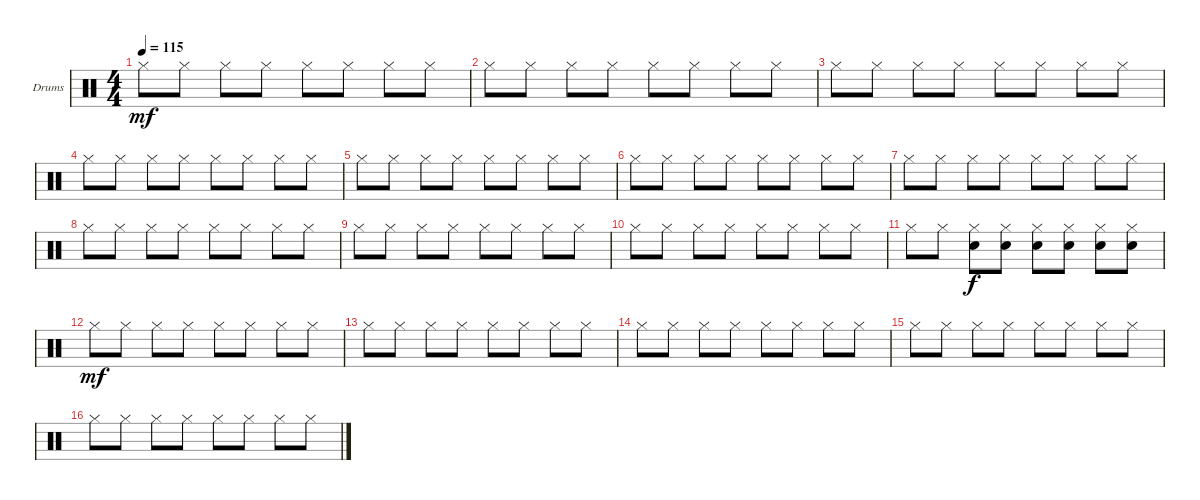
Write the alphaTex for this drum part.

\defaultSystemsLayout 4
\bracketExtendMode groupsimilarinstruments
\firstSystemTrackNameOrientation horizontal
\otherSystemsTrackNameOrientation horizontal
\track ("Drumkit" "Drums") {instrument percussion}
\staff {score}
\articulation defaults
\ts (4 4)
\tempo 115
\clef neutral
\ks c "Hi-Hat (closed)".8{dy mf} "Hi-Hat (closed)".8 "Hi-Hat (closed)".8 "Hi-Hat (closed)".8 "Hi-Hat (closed)".8 "Hi-Hat (closed)".8 "Hi-Hat (closed)".8 "Hi-Hat (closed)".8
|
"Hi-Hat (closed)".8 "Hi-Hat (closed)".8 "Hi-Hat (closed)".8 "Hi-Hat (closed)".8 "Hi-Hat (closed)".8 "Hi-Hat (closed)".8 "Hi-Hat (closed)".8 "Hi-Hat (closed)".8 |
"Hi-Hat (closed)".8 "Hi-Hat (closed)".8 "Hi-Hat (closed)".8 "Hi-Hat (closed)".8 "Hi-Hat (closed)".8 "Hi-Hat (closed)".8 "Hi-Hat (closed)".8 "Hi-Hat (closed)".8 |
"Hi-Hat (closed)".8 "Hi-Hat (closed)".8 "Hi-Hat (closed)".8 "Hi-Hat (closed)".8 "Hi-Hat (closed)".8 "Hi-Hat (closed)".8 "Hi-Hat (closed)".8 "Hi-Hat (closed)".8 |
"Hi-Hat (closed)".8 "Hi-Hat (closed)".8 "Hi-Hat (closed)".8 "Hi-Hat (closed)".8 "Hi-Hat (closed)".8 "Hi-Hat (closed)".8 "Hi-Hat (closed)".8 "Hi-Hat (closed)".8 |
"Hi-Hat (closed)".8 "Hi-Hat (closed)".8 "Hi-Hat (closed)".8 "Hi-Hat (closed)".8 "Hi-Hat (closed)".8 "Hi-Hat (closed)".8 "Hi-Hat (closed)".8 "Hi-Hat (closed)".8 |
"Hi-Hat (closed)".8 "Hi-Hat (closed)".8 "Hi-Hat (closed)".8 "Hi-Hat (closed)".8 "Hi-Hat (closed)".8 "Hi-Hat (closed)".8 "Hi-Hat (closed)".8 "Hi-Hat (closed)".8 |
"Hi-Hat (closed)".8 "Hi-Hat (closed)".8 "Hi-Hat (closed)".8 "Hi-Hat (closed)".8 "Hi-Hat (closed)".8 "Hi-Hat (closed)".8 "Hi-Hat (closed)".8 "Hi-Hat (closed)".8 |
"Hi-Hat (closed)".8 "Hi-Hat (closed)".8 "Hi-Hat (closed)".8 "Hi-Hat (closed)".8 "Hi-Hat (closed)".8 "Hi-Hat (closed)".8 "Hi-Hat (closed)".8 "Hi-Hat (closed)".8 |
"Hi-Hat (closed)".8 "Hi-Hat (closed)".8 "Hi-Hat (closed)".8 "Hi-Hat (closed)".8 "Hi-Hat (closed)".8 "Hi-Hat (closed)".8 "Hi-Hat (closed)".8 "Hi-Hat (closed)".8 |
"Hi-Hat (closed)".8 "Hi-Hat (closed)".8 ("Hi-Hat (closed)" "Snare (hit) 2").8{dy f} ("Hi-Hat (closed)" "Snare (hit) 2").8 ("Hi-Hat (closed)" "Snare (hit) 2").8 ("Hi-Hat (closed)" "Snare (hit) 2").8 ("Hi-Hat (closed)" "Snare (hit) 2").8 ("Hi-Hat (closed)" "Snare (hit) 2").8 |
"Hi-Hat (closed)".8{dy mf} "Hi-Hat (closed)".8 "Hi-Hat (closed)".8 "Hi-Hat (closed)".8 "Hi-Hat (closed)".8 "Hi-Hat (closed)".8 "Hi-Hat (closed)".8 "Hi-Hat (closed)".8 |
"Hi-Hat (closed)".8 "Hi-Hat (closed)".8 "Hi-Hat (closed)".8 "Hi-Hat (closed)".8 "Hi-Hat (closed)".8 "Hi-Hat (closed)".8 "Hi-Hat (closed)".8 "Hi-Hat (closed)".8 |
"Hi-Hat (closed)".8 "Hi-Hat (closed)".8 "Hi-Hat (closed)".8 "Hi-Hat (closed)".8 "Hi-Hat (closed)".8 "Hi-Hat (closed)".8 "Hi-Hat (closed)".8 "Hi-Hat (closed)".8 |
"Hi-Hat (closed)".8 "Hi-Hat (closed)".8 "Hi-Hat (closed)".8 "Hi-Hat (closed)".8 "Hi-Hat (closed)".8 "Hi-Hat (closed)".8 "Hi-Hat (closed)".8 "Hi-Hat (closed)".8 |
"Hi-Hat (closed)".8 "Hi-Hat (closed)".8 "Hi-Hat (closed)".8 "Hi-Hat (closed)".8 "Hi-Hat (closed)".8 "Hi-Hat (closed)".8 "Hi-Hat (closed)".8 "Hi-Hat (closed)".8
